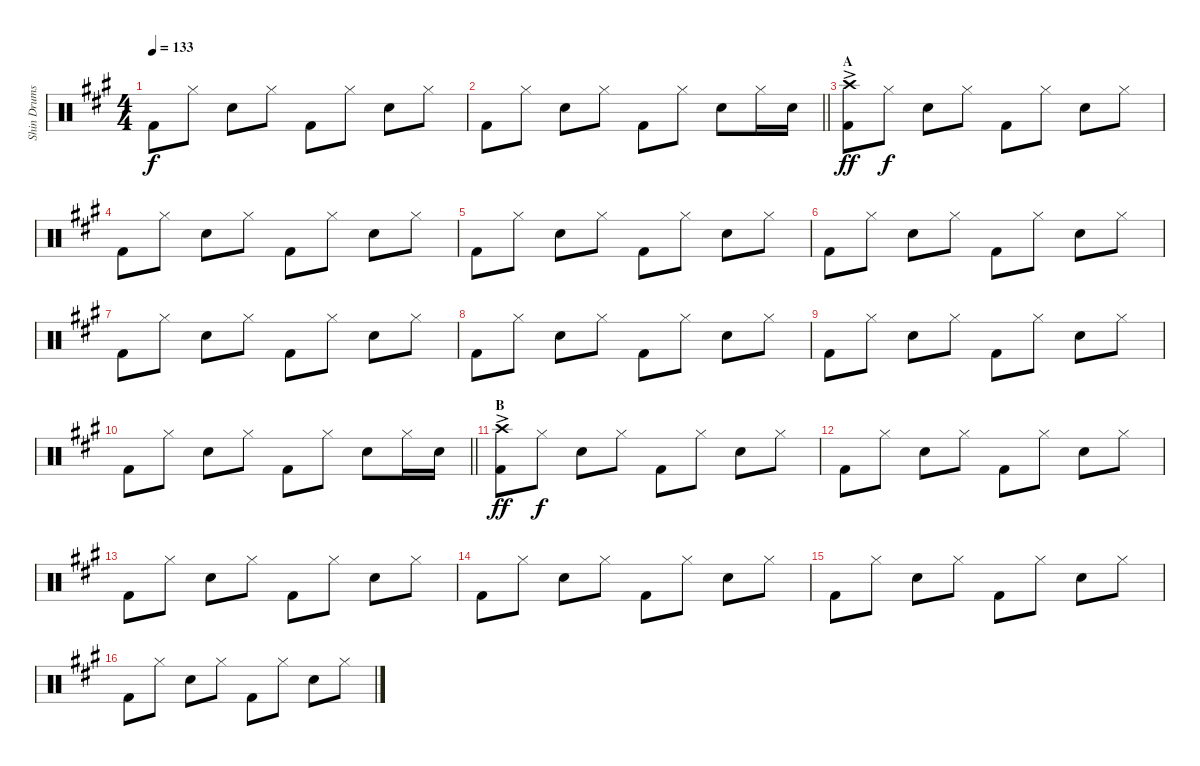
\track ("Shin Drums" "Shin Drums") {instrument percussion}
\staff {score}
\articulation defaults
\ts (4 4)
\tempo 133
\clef neutral
\ks a "Kick (hit) 2".8{dy f} "Hi-Hat (closed)".8 "Snare (hit) 2".8 "Hi-Hat (closed)".8 "Kick (hit) 2".8 "Hi-Hat (closed)".8 "Snare (hit) 2".8 "Hi-Hat (closed)".8
|
\barLineRight lightlight "Kick (hit) 2".8 "Hi-Hat (closed)".8 "Snare (hit) 2".8 "Hi-Hat (closed)".8 "Kick (hit) 2".8 "Hi-Hat (closed)".8 "Snare (hit) 2".8 "Hi-Hat (closed)".16 "Snare (hit) 2".16
|
\section ("" "A")
("Crash high (hit)"{ac} "Kick (hit) 2").8{dy ff} "Hi-Hat (closed)".8{dy f} "Snare (hit) 2".8 "Hi-Hat (closed)".8 "Kick (hit) 2".8 "Hi-Hat (closed)".8 "Snare (hit) 2".8 "Hi-Hat (closed)".8 |
"Kick (hit) 2".8 "Hi-Hat (closed)".8 "Snare (hit) 2".8 "Hi-Hat (closed)".8 "Kick (hit) 2".8 "Hi-Hat (closed)".8 "Snare (hit) 2".8 "Hi-Hat (closed)".8 |
"Kick (hit) 2".8 "Hi-Hat (closed)".8 "Snare (hit) 2".8 "Hi-Hat (closed)".8 "Kick (hit) 2".8 "Hi-Hat (closed)".8 "Snare (hit) 2".8 "Hi-Hat (closed)".8 |
"Kick (hit) 2".8 "Hi-Hat (closed)".8 "Snare (hit) 2".8 "Hi-Hat (closed)".8 "Kick (hit) 2".8 "Hi-Hat (closed)".8 "Snare (hit) 2".8 "Hi-Hat (closed)".8 |
"Kick (hit) 2".8 "Hi-Hat (closed)".8 "Snare (hit) 2".8 "Hi-Hat (closed)".8 "Kick (hit) 2".8 "Hi-Hat (closed)".8 "Snare (hit) 2".8 "Hi-Hat (closed)".8 |
"Kick (hit) 2".8 "Hi-Hat (closed)".8 "Snare (hit) 2".8 "Hi-Hat (closed)".8 "Kick (hit) 2".8 "Hi-Hat (closed)".8 "Snare (hit) 2".8 "Hi-Hat (closed)".8 |
"Kick (hit) 2".8 "Hi-Hat (closed)".8 "Snare (hit) 2".8 "Hi-Hat (closed)".8 "Kick (hit) 2".8 "Hi-Hat (closed)".8 "Snare (hit) 2".8 "Hi-Hat (closed)".8 |
\barLineRight lightlight "Kick (hit) 2".8 "Hi-Hat (closed)".8 "Snare (hit) 2".8 "Hi-Hat (closed)".8 "Kick (hit) 2".8 "Hi-Hat (closed)".8 "Snare (hit) 2".8 "Hi-Hat (closed)".16 "Snare (hit) 2".16
|
\section ("" "B")
("Crash high (hit)"{ac} "Kick (hit) 2").8{dy ff} "Hi-Hat (closed)".8{dy f} "Snare (hit) 2".8 "Hi-Hat (closed)".8 "Kick (hit) 2".8 "Hi-Hat (closed)".8 "Snare (hit) 2".8 "Hi-Hat (closed)".8 |
"Kick (hit) 2".8 "Hi-Hat (closed)".8 "Snare (hit) 2".8 "Hi-Hat (closed)".8 "Kick (hit) 2".8 "Hi-Hat (closed)".8 "Snare (hit) 2".8 "Hi-Hat (closed)".8 |
"Kick (hit) 2".8 "Hi-Hat (closed)".8 "Snare (hit) 2".8 "Hi-Hat (closed)".8 "Kick (hit) 2".8 "Hi-Hat (closed)".8 "Snare (hit) 2".8 "Hi-Hat (closed)".8 |
"Kick (hit) 2".8 "Hi-Hat (closed)".8 "Snare (hit) 2".8 "Hi-Hat (closed)".8 "Kick (hit) 2".8 "Hi-Hat (closed)".8 "Snare (hit) 2".8 "Hi-Hat (closed)".8 |
"Kick (hit) 2".8 "Hi-Hat (closed)".8 "Snare (hit) 2".8 "Hi-Hat (closed)".8 "Kick (hit) 2".8 "Hi-Hat (closed)".8 "Snare (hit) 2".8 "Hi-Hat (closed)".8 |
"Kick (hit) 2".8 "Hi-Hat (closed)".8 "Snare (hit) 2".8 "Hi-Hat (closed)".8 "Kick (hit) 2".8 "Hi-Hat (closed)".8 "Snare (hit) 2".8 "Hi-Hat (closed)".8
